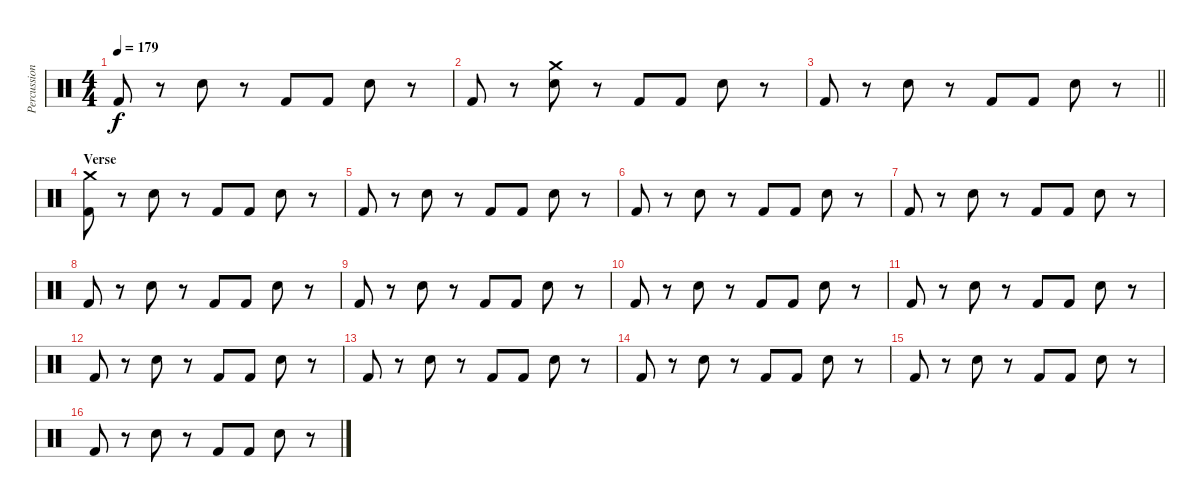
\track ("Percussion" "Percussion") {instrument percussion}
\staff {score}
\articulation defaults
\ts (4 4)
\tempo 179
\clef neutral
\ks c "Kick (hit) 2".8{dy f}
r.8 "Snare (hit) 2".8 r.8 "Kick (hit) 2".8 "Kick (hit) 2".8 "Snare (hit) 2".8 r.8 |
"Kick (hit) 2".8 r.8 ("Crash medium (hit)" "Snare (hit) 2").8 r.8 "Kick (hit) 2".8 "Kick (hit) 2".8 "Snare (hit) 2".8 r.8 |
\barLineRight lightlight "Kick (hit) 2".8
r.8 "Snare (hit) 2".8 r.8 "Kick (hit) 2".8 "Kick (hit) 2".8 "Snare (hit) 2".8 r.8 |
\section ("" "Verse")
("Crash medium (hit)" "Kick (hit) 2").8 r.8 "Snare (hit) 2".8 r.8 "Kick (hit) 2".8 "Kick (hit) 2".8 "Snare (hit) 2".8 r.8 |
"Kick (hit) 2".8 r.8 "Snare (hit) 2".8 r.8 "Kick (hit) 2".8 "Kick (hit) 2".8 "Snare (hit) 2".8 r.8 |
"Kick (hit) 2".8 r.8 "Snare (hit) 2".8 r.8 "Kick (hit) 2".8 "Kick (hit) 2".8 "Snare (hit) 2".8 r.8 |
"Kick (hit) 2".8 r.8 "Snare (hit) 2".8 r.8 "Kick (hit) 2".8 "Kick (hit) 2".8 "Snare (hit) 2".8 r.8 |
"Kick (hit) 2".8 r.8 "Snare (hit) 2".8 r.8 "Kick (hit) 2".8 "Kick (hit) 2".8 "Snare (hit) 2".8 r.8 |
"Kick (hit) 2".8 r.8 "Snare (hit) 2".8 r.8 "Kick (hit) 2".8 "Kick (hit) 2".8 "Snare (hit) 2".8 r.8 |
"Kick (hit) 2".8 r.8 "Snare (hit) 2".8 r.8 "Kick (hit) 2".8 "Kick (hit) 2".8 "Snare (hit) 2".8 r.8 |
"Kick (hit) 2".8 r.8 "Snare (hit) 2".8 r.8 "Kick (hit) 2".8 "Kick (hit) 2".8 "Snare (hit) 2".8 r.8 |
"Kick (hit) 2".8 r.8 "Snare (hit) 2".8 r.8 "Kick (hit) 2".8 "Kick (hit) 2".8 "Snare (hit) 2".8 r.8 |
"Kick (hit) 2".8 r.8 "Snare (hit) 2".8 r.8 "Kick (hit) 2".8 "Kick (hit) 2".8 "Snare (hit) 2".8 r.8 |
"Kick (hit) 2".8 r.8 "Snare (hit) 2".8 r.8 "Kick (hit) 2".8 "Kick (hit) 2".8 "Snare (hit) 2".8 r.8 |
"Kick (hit) 2".8 r.8 "Snare (hit) 2".8 r.8 "Kick (hit) 2".8 "Kick (hit) 2".8 "Snare (hit) 2".8 r.8 |
"Kick (hit) 2".8 r.8 "Snare (hit) 2".8 r.8 "Kick (hit) 2".8 "Kick (hit) 2".8 "Snare (hit) 2".8 r.8
